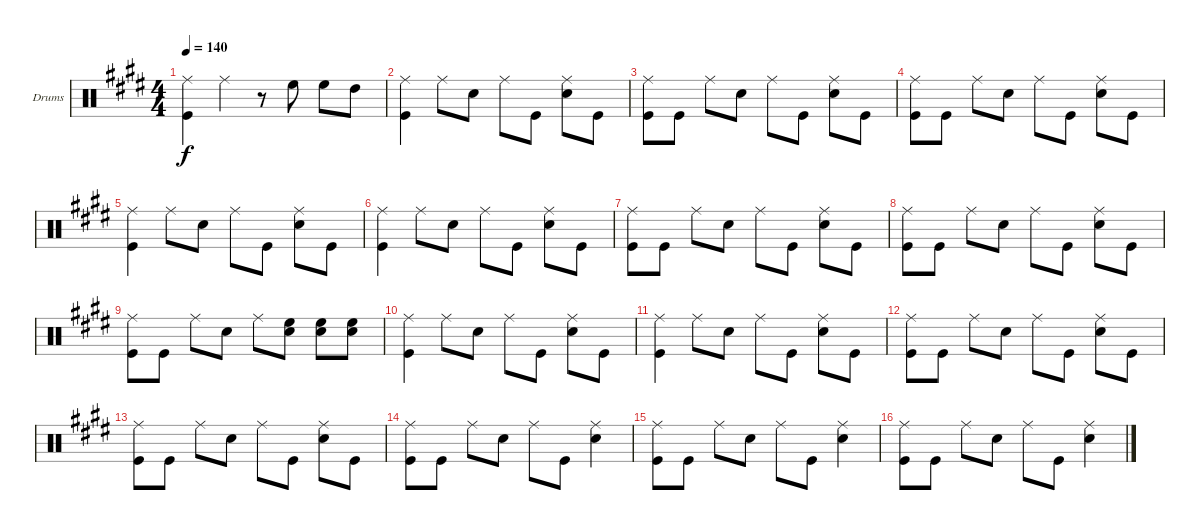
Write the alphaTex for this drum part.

\bracketExtendMode groupsimilarinstruments
\firstSystemTrackNameOrientation horizontal
\otherSystemsTrackNameOrientation horizontal
\track ("Drumkit" "Drums") {instrument percussion}
\staff {score}
\articulation defaults
\ts (4 4)
\tempo 140
\clef neutral
\ks e
("Ride (middle)" "Kick (hit)").4{dy f} "Ride (middle)".4 r.8 "High Floor Tom (hit)".8 "High Floor Tom (hit)".8 "High Tom (hit)".8 |
("Ride (middle)" "Kick (hit)").4 "Ride (middle)".8 "Snare (hit) 2".8 "Ride (middle)".8 "Kick (hit)".8 ("Ride (middle)" "Snare (hit) 2").8 "Kick (hit)".8 |
("Ride (middle)" "Kick (hit)").8 "Kick (hit)".8 "Ride (middle)".8 "Snare (hit) 2".8 "Ride (middle)".8 "Kick (hit)".8 ("Ride (middle)" "Snare (hit) 2").8 "Kick (hit)".8 |
("Ride (middle)" "Kick (hit)").8 "Kick (hit)".8 "Ride (middle)".8 "Snare (hit) 2".8 "Ride (middle)".8 "Kick (hit)".8 ("Ride (middle)" "Snare (hit) 2").8 "Kick (hit)".8 |
("Ride (middle)" "Kick (hit)").4 "Ride (middle)".8 "Snare (hit) 2".8 "Ride (middle)".8 "Kick (hit)".8 ("Ride (middle)" "Snare (hit) 2").8 "Kick (hit)".8 |
("Ride (middle)" "Kick (hit)").4 "Ride (middle)".8 "Snare (hit) 2".8 "Ride (middle)".8 "Kick (hit)".8 ("Ride (middle)" "Snare (hit) 2").8 "Kick (hit)".8 |
("Ride (middle)" "Kick (hit)").8 "Kick (hit)".8 "Ride (middle)".8 "Snare (hit) 2".8 "Ride (middle)".8 "Kick (hit)".8 ("Ride (middle)" "Snare (hit) 2").8 "Kick (hit)".8 |
("Ride (middle)" "Kick (hit)").8 "Kick (hit)".8 "Ride (middle)".8 "Snare (hit) 2".8 "Ride (middle)".8 "Kick (hit)".8 ("Ride (middle)" "Snare (hit) 2").8 "Kick (hit)".8 |
("Ride (middle)" "Kick (hit)").8 "Kick (hit)".8 "Ride (middle)".8 "Snare (hit) 2".8 "Ride (middle)".8 ("High Floor Tom (hit)" "Snare (hit) 2").8 ("High Floor Tom (hit)" "Snare (hit) 2").8 ("High Floor Tom (hit)" "Snare (hit) 2").8 |
("Ride (middle)" "Kick (hit)").4 "Ride (middle)".8 "Snare (hit) 2".8 "Ride (middle)".8 "Kick (hit)".8 ("Ride (middle)" "Snare (hit) 2").8 "Kick (hit)".8 |
("Ride (middle)" "Kick (hit)").4 "Ride (middle)".8 "Snare (hit) 2".8 "Ride (middle)".8 "Kick (hit)".8 ("Ride (middle)" "Snare (hit) 2").8 "Kick (hit)".8 |
("Ride (middle)" "Kick (hit)").8 "Kick (hit)".8 "Ride (middle)".8 "Snare (hit) 2".8 "Ride (middle)".8 "Kick (hit)".8 ("Ride (middle)" "Snare (hit) 2").8 "Kick (hit)".8 |
("Ride (middle)" "Kick (hit)").8 "Kick (hit)".8 "Ride (middle)".8 "Snare (hit) 2".8 "Ride (middle)".8 "Kick (hit)".8 ("Ride (middle)" "Snare (hit) 2").8 "Kick (hit)".8 |
("Ride (middle)" "Kick (hit)").8 "Kick (hit)".8 "Ride (middle)".8 "Snare (hit) 2".8 "Ride (middle)".8 "Kick (hit)".8 ("Ride (middle)" "Snare (hit) 2").4 |
("Ride (middle)" "Kick (hit)").8 "Kick (hit)".8 "Ride (middle)".8 "Snare (hit) 2".8 "Ride (middle)".8 "Kick (hit)".8 ("Ride (middle)" "Snare (hit) 2").4 |
("Ride (middle)" "Kick (hit)").8 "Kick (hit)".8 "Ride (middle)".8 "Snare (hit) 2".8 "Ride (middle)".8 "Kick (hit)".8 ("Ride (middle)" "Snare (hit) 2").4
